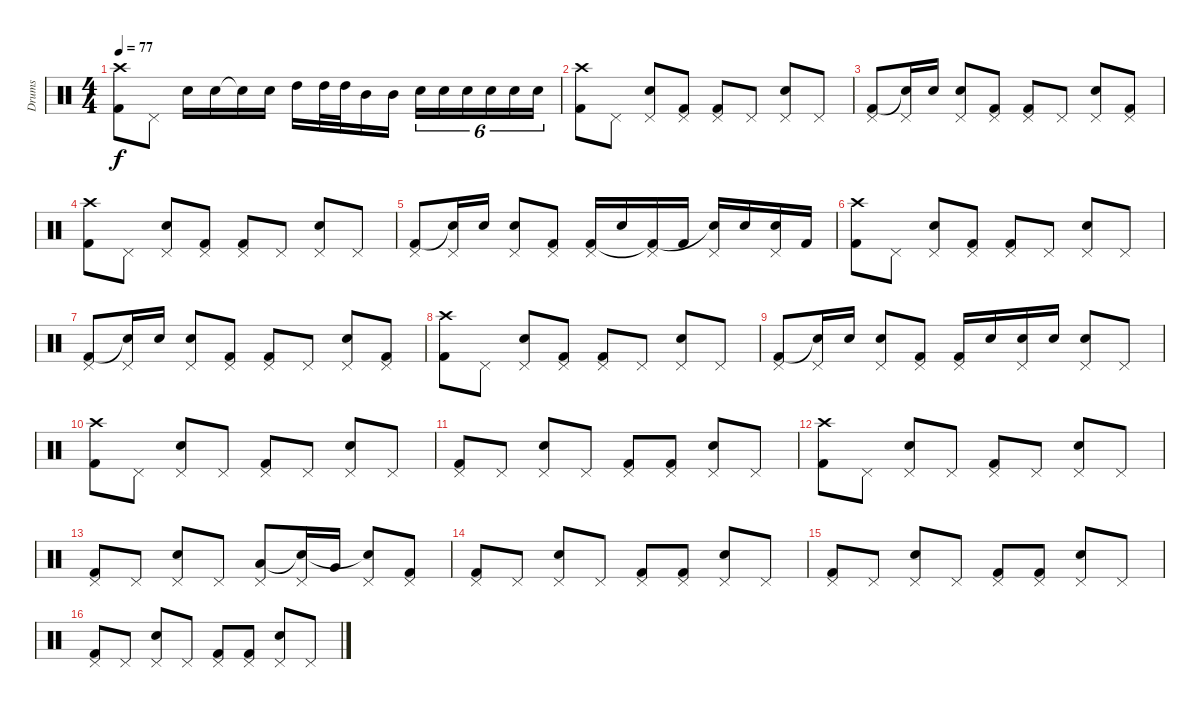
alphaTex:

\track ("Drums" "Drums") {instrument percussion}
\staff {score}
\articulation defaults
\ts (4 4)
\tempo 77
\clef neutral
\ks c
("Crash high (hit)" "Kick (hit) 2").8{dy f} "Pedal Hi-Hat (hit)".8 "Electric Snare (hit)".16 "Electric Snare (hit)".16 "Snare (hit)"{t}.16 "Electric Snare (hit)".16 "High Tom (hit)".16 "High Tom (hit)".32 "High Tom (hit)".32 "Mid Tom (hit)".16 "Mid Tom (hit)".16 "Electric Snare (hit)".16{tu (6 4)} "Electric Snare (hit)".16{tu (6 4)} "Electric Snare (hit)".16{tu (6 4)} "Electric Snare (hit)".16{tu (6 4)} "Electric Snare (hit)".16{tu (6 4)} "Electric Snare (hit)".16{tu (6 4)} |
("Crash high (hit)" "Kick (hit) 2").8 "Pedal Hi-Hat (hit)".8 ("Pedal Hi-Hat (hit)" "Electric Snare (hit)").8 ("Pedal Hi-Hat (hit)" "Kick (hit) 2").8 ("Pedal Hi-Hat (hit)" "Kick (hit) 2").8 "Pedal Hi-Hat (hit)".8 ("Pedal Hi-Hat (hit)" "Electric Snare (hit)").8 "Pedal Hi-Hat (hit)".8 |
("Pedal Hi-Hat (hit)" "Kick (hit) 2").8 ("Pedal Hi-Hat (hit)" "Snare (hit)"{t}).16 "Electric Snare (hit)".16 ("Pedal Hi-Hat (hit)" "Electric Snare (hit)").8 ("Pedal Hi-Hat (hit)" "Kick (hit) 2").8 ("Pedal Hi-Hat (hit)" "Kick (hit) 2").8 "Pedal Hi-Hat (hit)".8 ("Pedal Hi-Hat (hit)" "Electric Snare (hit)").8 ("Pedal Hi-Hat (hit)" "Kick (hit) 2").8 |
("Crash high (hit)" "Kick (hit) 2").8 "Pedal Hi-Hat (hit)".8 ("Pedal Hi-Hat (hit)" "Electric Snare (hit)").8 ("Pedal Hi-Hat (hit)" "Kick (hit) 2").8 ("Pedal Hi-Hat (hit)" "Kick (hit) 2").8 "Pedal Hi-Hat (hit)".8 ("Pedal Hi-Hat (hit)" "Electric Snare (hit)").8 "Pedal Hi-Hat (hit)".8 |
("Pedal Hi-Hat (hit)" "Kick (hit) 2").8 ("Pedal Hi-Hat (hit)" "Snare (hit)"{t}).16 "Electric Snare (hit)".16 ("Pedal Hi-Hat (hit)" "Electric Snare (hit)").8 ("Pedal Hi-Hat (hit)" "Kick (hit) 2").8 ("Pedal Hi-Hat (hit)" "Kick (hit) 2").16 "Electric Snare (hit)".16 ("Pedal Hi-Hat (hit)" "Kick (hit) 2"{t}).16 "Kick (hit) 2".16 ("Pedal Hi-Hat (hit)" "Electric Snare (hit)"{t}).16 "Electric Snare (hit)".16 ("Pedal Hi-Hat (hit)" "Electric Snare (hit)").16 "Kick (hit) 2".16 |
("Crash high (hit)" "Kick (hit) 2").8 "Pedal Hi-Hat (hit)".8 ("Pedal Hi-Hat (hit)" "Electric Snare (hit)").8 ("Pedal Hi-Hat (hit)" "Kick (hit) 2").8 ("Pedal Hi-Hat (hit)" "Kick (hit) 2").8 "Pedal Hi-Hat (hit)".8 ("Pedal Hi-Hat (hit)" "Electric Snare (hit)").8 "Pedal Hi-Hat (hit)".8 |
("Pedal Hi-Hat (hit)" "Kick (hit) 2").8 ("Pedal Hi-Hat (hit)" "Snare (hit)"{t}).16 "Electric Snare (hit)".16 ("Pedal Hi-Hat (hit)" "Electric Snare (hit)").8 ("Pedal Hi-Hat (hit)" "Kick (hit) 2").8 ("Pedal Hi-Hat (hit)" "Kick (hit) 2").8 "Pedal Hi-Hat (hit)".8 ("Pedal Hi-Hat (hit)" "Electric Snare (hit)").8 ("Pedal Hi-Hat (hit)" "Kick (hit) 2").8 |
("Crash high (hit)" "Kick (hit) 2").8 "Pedal Hi-Hat (hit)".8 ("Pedal Hi-Hat (hit)" "Electric Snare (hit)").8 ("Pedal Hi-Hat (hit)" "Kick (hit) 2").8 ("Pedal Hi-Hat (hit)" "Kick (hit) 2").8 "Pedal Hi-Hat (hit)".8 ("Pedal Hi-Hat (hit)" "Electric Snare (hit)").8 "Pedal Hi-Hat (hit)".8 |
("Pedal Hi-Hat (hit)" "Kick (hit) 2").8 ("Pedal Hi-Hat (hit)" "Snare (hit)"{t}).16 "Electric Snare (hit)".16 ("Pedal Hi-Hat (hit)" "Electric Snare (hit)").8 ("Pedal Hi-Hat (hit)" "Kick (hit) 2").8 ("Pedal Hi-Hat (hit)" "Kick (hit) 2").16 "Electric Snare (hit)".16 ("Pedal Hi-Hat (hit)" "Electric Snare (hit)").16 "Electric Snare (hit)".16 ("Pedal Hi-Hat (hit)" "Electric Snare (hit)").8 "Pedal Hi-Hat (hit)".8 |
("Crash high (hit)" "Kick (hit) 2").8 "Pedal Hi-Hat (hit)".8 ("Pedal Hi-Hat (hit)" "Electric Snare (hit)").8 "Pedal Hi-Hat (hit)".8 ("Pedal Hi-Hat (hit)" "Kick (hit) 2").8 "Pedal Hi-Hat (hit)".8 ("Pedal Hi-Hat (hit)" "Electric Snare (hit)").8 "Pedal Hi-Hat (hit)".8 |
("Pedal Hi-Hat (hit)" "Kick (hit) 2").8 "Pedal Hi-Hat (hit)".8 ("Pedal Hi-Hat (hit)" "Electric Snare (hit)").8 "Pedal Hi-Hat (hit)".8 ("Pedal Hi-Hat (hit)" "Kick (hit) 2").8 ("Pedal Hi-Hat (hit)" "Kick (hit) 2").8 ("Pedal Hi-Hat (hit)" "Electric Snare (hit)").8 "Pedal Hi-Hat (hit)".8 |
("Crash high (hit)" "Kick (hit) 2").8 "Pedal Hi-Hat (hit)".8 ("Pedal Hi-Hat (hit)" "Electric Snare (hit)").8 "Pedal Hi-Hat (hit)".8 ("Pedal Hi-Hat (hit)" "Kick (hit) 2").8 "Pedal Hi-Hat (hit)".8 ("Pedal Hi-Hat (hit)" "Electric Snare (hit)").8 "Pedal Hi-Hat (hit)".8 |
("Pedal Hi-Hat (hit)" "Kick (hit) 2").8 "Pedal Hi-Hat (hit)".8 ("Pedal Hi-Hat (hit)" "Electric Snare (hit)").8 "Pedal Hi-Hat (hit)".8 ("Pedal Hi-Hat (hit)" "Low Tom (hit)").8 ("Pedal Hi-Hat (hit)" "Snare (hit)"{t}).16 "Very Low Tom (hit)".16 ("Pedal Hi-Hat (hit)" "Snare (hit)"{t}).8 ("Pedal Hi-Hat (hit)" "Kick (hit) 2").8 |
("Pedal Hi-Hat (hit)" "Kick (hit) 2").8 "Pedal Hi-Hat (hit)".8 ("Pedal Hi-Hat (hit)" "Electric Snare (hit)").8 "Pedal Hi-Hat (hit)".8 ("Pedal Hi-Hat (hit)" "Kick (hit) 2").8 ("Pedal Hi-Hat (hit)" "Kick (hit) 2").8 ("Pedal Hi-Hat (hit)" "Electric Snare (hit)").8 "Pedal Hi-Hat (hit)".8 |
("Pedal Hi-Hat (hit)" "Kick (hit) 2").8 "Pedal Hi-Hat (hit)".8 ("Pedal Hi-Hat (hit)" "Electric Snare (hit)").8 "Pedal Hi-Hat (hit)".8 ("Pedal Hi-Hat (hit)" "Kick (hit) 2").8 ("Pedal Hi-Hat (hit)" "Kick (hit) 2").8 ("Pedal Hi-Hat (hit)" "Electric Snare (hit)").8 "Pedal Hi-Hat (hit)".8 |
("Pedal Hi-Hat (hit)" "Kick (hit) 2").8 "Pedal Hi-Hat (hit)".8 ("Pedal Hi-Hat (hit)" "Electric Snare (hit)").8 "Pedal Hi-Hat (hit)".8 ("Pedal Hi-Hat (hit)" "Kick (hit) 2").8 ("Pedal Hi-Hat (hit)" "Kick (hit) 2").8 ("Pedal Hi-Hat (hit)" "Electric Snare (hit)").8 "Pedal Hi-Hat (hit)".8
